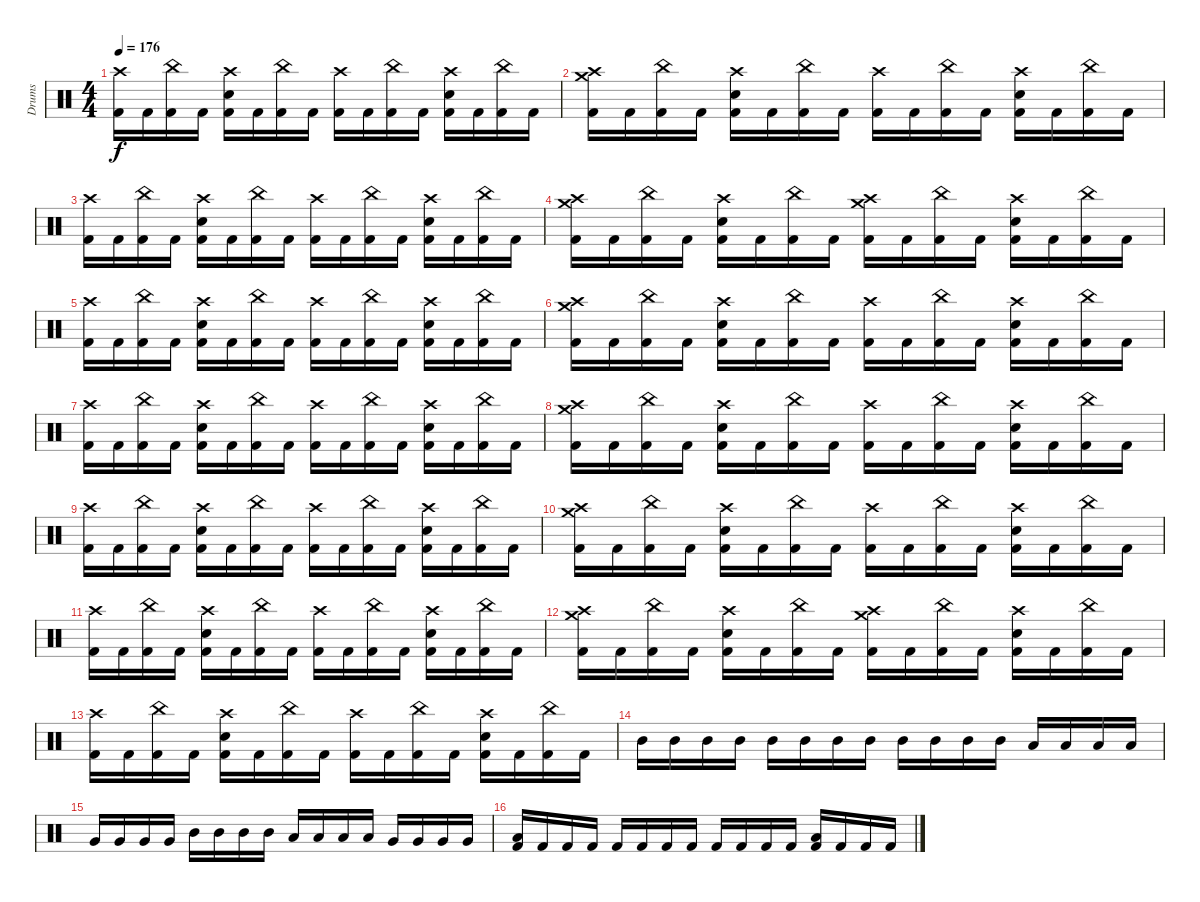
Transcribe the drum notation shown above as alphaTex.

\track ("Drums" "Drums") {instrument percussion}
\staff {score}
\articulation defaults
\ts (4 4)
\tempo 176
\clef neutral
\ks c
("Crash high (hit)" "Kick (hit) 2").16{dy f} "Kick (hit) 2".16 ("China (hit)" "Kick (hit) 2").16 "Kick (hit) 2".16 ("Crash high (hit)" "Snare (hit) 2" "Kick (hit) 2").16 "Kick (hit) 2".16 ("China (hit)" "Kick (hit) 2").16 "Kick (hit) 2".16 ("Crash high (hit)" "Kick (hit) 2").16 "Kick (hit) 2".16 ("China (hit)" "Kick (hit) 2").16 "Kick (hit) 2".16 ("Crash high (hit)" "Snare (hit) 2" "Kick (hit) 2").16 "Kick (hit) 2".16 ("China (hit)" "Kick (hit) 2").16 "Kick (hit) 2".16 |
("Crash medium (hit)" "Crash high (hit)" "Kick (hit) 2").16 "Kick (hit) 2".16 ("China (hit)" "Kick (hit) 2").16 "Kick (hit) 2".16 ("Crash high (hit)" "Snare (hit) 2" "Kick (hit) 2").16 "Kick (hit) 2".16 ("China (hit)" "Kick (hit) 2").16 "Kick (hit) 2".16 ("Crash high (hit)" "Kick (hit) 2").16 "Kick (hit) 2".16 ("China (hit)" "Kick (hit) 2").16 "Kick (hit) 2".16 ("Crash high (hit)" "Snare (hit) 2" "Kick (hit) 2").16 "Kick (hit) 2".16 ("China (hit)" "Kick (hit) 2").16 "Kick (hit) 2".16 |
("Crash high (hit)" "Kick (hit) 2").16 "Kick (hit) 2".16 ("China (hit)" "Kick (hit) 2").16 "Kick (hit) 2".16 ("Crash high (hit)" "Snare (hit) 2" "Kick (hit) 2").16 "Kick (hit) 2".16 ("China (hit)" "Kick (hit) 2").16 "Kick (hit) 2".16 ("Crash high (hit)" "Kick (hit) 2").16 "Kick (hit) 2".16 ("China (hit)" "Kick (hit) 2").16 "Kick (hit) 2".16 ("Crash high (hit)" "Snare (hit) 2" "Kick (hit) 2").16 "Kick (hit) 2".16 ("China (hit)" "Kick (hit) 2").16 "Kick (hit) 2".16 |
("Crash medium (hit)" "Crash high (hit)" "Kick (hit) 2").16 "Kick (hit) 2".16 ("China (hit)" "Kick (hit) 2").16 "Kick (hit) 2".16 ("Crash high (hit)" "Snare (hit) 2" "Kick (hit) 2").16 "Kick (hit) 2".16 ("China (hit)" "Kick (hit) 2").16 "Kick (hit) 2".16 ("Crash high (hit)" "Crash medium (hit)" "Kick (hit) 2").16 "Kick (hit) 2".16 ("China (hit)" "Kick (hit) 2").16 "Kick (hit) 2".16 ("Crash high (hit)" "Snare (hit) 2" "Kick (hit) 2").16 "Kick (hit) 2".16 ("China (hit)" "Kick (hit) 2").16 "Kick (hit) 2".16 |
("Crash high (hit)" "Kick (hit) 2").16 "Kick (hit) 2".16 ("China (hit)" "Kick (hit) 2").16 "Kick (hit) 2".16 ("Crash high (hit)" "Snare (hit) 2" "Kick (hit) 2").16 "Kick (hit) 2".16 ("China (hit)" "Kick (hit) 2").16 "Kick (hit) 2".16 ("Crash high (hit)" "Kick (hit) 2").16 "Kick (hit) 2".16 ("China (hit)" "Kick (hit) 2").16 "Kick (hit) 2".16 ("Crash high (hit)" "Snare (hit) 2" "Kick (hit) 2").16 "Kick (hit) 2".16 ("China (hit)" "Kick (hit) 2").16 "Kick (hit) 2".16 |
("Crash medium (hit)" "Crash high (hit)" "Kick (hit) 2").16 "Kick (hit) 2".16 ("China (hit)" "Kick (hit) 2").16 "Kick (hit) 2".16 ("Crash high (hit)" "Snare (hit) 2" "Kick (hit) 2").16 "Kick (hit) 2".16 ("China (hit)" "Kick (hit) 2").16 "Kick (hit) 2".16 ("Crash high (hit)" "Kick (hit) 2").16 "Kick (hit) 2".16 ("China (hit)" "Kick (hit) 2").16 "Kick (hit) 2".16 ("Crash high (hit)" "Snare (hit) 2" "Kick (hit) 2").16 "Kick (hit) 2".16 ("China (hit)" "Kick (hit) 2").16 "Kick (hit) 2".16 |
("Crash high (hit)" "Kick (hit) 2").16 "Kick (hit) 2".16 ("China (hit)" "Kick (hit) 2").16 "Kick (hit) 2".16 ("Crash high (hit)" "Snare (hit) 2" "Kick (hit) 2").16 "Kick (hit) 2".16 ("China (hit)" "Kick (hit) 2").16 "Kick (hit) 2".16 ("Crash high (hit)" "Kick (hit) 2").16 "Kick (hit) 2".16 ("China (hit)" "Kick (hit) 2").16 "Kick (hit) 2".16 ("Crash high (hit)" "Snare (hit) 2" "Kick (hit) 2").16 "Kick (hit) 2".16 ("China (hit)" "Kick (hit) 2").16 "Kick (hit) 2".16 |
("Crash medium (hit)" "Crash high (hit)" "Kick (hit) 2").16 "Kick (hit) 2".16 ("China (hit)" "Kick (hit) 2").16 "Kick (hit) 2".16 ("Crash high (hit)" "Snare (hit) 2" "Kick (hit) 2").16 "Kick (hit) 2".16 ("China (hit)" "Kick (hit) 2").16 "Kick (hit) 2".16 ("Crash high (hit)" "Kick (hit) 2").16 "Kick (hit) 2".16 ("China (hit)" "Kick (hit) 2").16 "Kick (hit) 2".16 ("Crash high (hit)" "Snare (hit) 2" "Kick (hit) 2").16 "Kick (hit) 2".16 ("China (hit)" "Kick (hit) 2").16 "Kick (hit) 2".16 |
("Crash high (hit)" "Kick (hit) 2").16 "Kick (hit) 2".16 ("China (hit)" "Kick (hit) 2").16 "Kick (hit) 2".16 ("Crash high (hit)" "Snare (hit) 2" "Kick (hit) 2").16 "Kick (hit) 2".16 ("China (hit)" "Kick (hit) 2").16 "Kick (hit) 2".16 ("Crash high (hit)" "Kick (hit) 2").16 "Kick (hit) 2".16 ("China (hit)" "Kick (hit) 2").16 "Kick (hit) 2".16 ("Crash high (hit)" "Snare (hit) 2" "Kick (hit) 2").16 "Kick (hit) 2".16 ("China (hit)" "Kick (hit) 2").16 "Kick (hit) 2".16 |
("Crash medium (hit)" "Crash high (hit)" "Kick (hit) 2").16 "Kick (hit) 2".16 ("China (hit)" "Kick (hit) 2").16 "Kick (hit) 2".16 ("Crash high (hit)" "Snare (hit) 2" "Kick (hit) 2").16 "Kick (hit) 2".16 ("China (hit)" "Kick (hit) 2").16 "Kick (hit) 2".16 ("Crash high (hit)" "Kick (hit) 2").16 "Kick (hit) 2".16 ("China (hit)" "Kick (hit) 2").16 "Kick (hit) 2".16 ("Crash high (hit)" "Snare (hit) 2" "Kick (hit) 2").16 "Kick (hit) 2".16 ("China (hit)" "Kick (hit) 2").16 "Kick (hit) 2".16 |
("Crash high (hit)" "Kick (hit) 2").16 "Kick (hit) 2".16 ("China (hit)" "Kick (hit) 2").16 "Kick (hit) 2".16 ("Crash high (hit)" "Snare (hit) 2" "Kick (hit) 2").16 "Kick (hit) 2".16 ("China (hit)" "Kick (hit) 2").16 "Kick (hit) 2".16 ("Crash high (hit)" "Kick (hit) 2").16 "Kick (hit) 2".16 ("China (hit)" "Kick (hit) 2").16 "Kick (hit) 2".16 ("Crash high (hit)" "Snare (hit) 2" "Kick (hit) 2").16 "Kick (hit) 2".16 ("China (hit)" "Kick (hit) 2").16 "Kick (hit) 2".16 |
("Crash medium (hit)" "Crash high (hit)" "Kick (hit) 2").16 "Kick (hit) 2".16 ("China (hit)" "Kick (hit) 2").16 "Kick (hit) 2".16 ("Crash high (hit)" "Snare (hit) 2" "Kick (hit) 2").16 "Kick (hit) 2".16 ("China (hit)" "Kick (hit) 2").16 "Kick (hit) 2".16 ("Crash high (hit)" "Crash medium (hit)" "Kick (hit) 2").16 "Kick (hit) 2".16 ("China (hit)" "Kick (hit) 2").16 "Kick (hit) 2".16 ("Crash high (hit)" "Snare (hit) 2" "Kick (hit) 2").16 "Kick (hit) 2".16 ("China (hit)" "Kick (hit) 2").16 "Kick (hit) 2".16 |
("Crash high (hit)" "Kick (hit) 2").16 "Kick (hit) 2".16 ("China (hit)" "Kick (hit) 2").16 "Kick (hit) 2".16 ("Crash high (hit)" "Snare (hit) 2" "Kick (hit) 2").16 "Kick (hit) 2".16 ("China (hit)" "Kick (hit) 2").16 "Kick (hit) 2".16 ("Crash high (hit)" "Kick (hit) 2").16 "Kick (hit) 2".16 ("China (hit)" "Kick (hit) 2").16 "Kick (hit) 2".16 ("Crash high (hit)" "Snare (hit) 2" "Kick (hit) 2").16 "Kick (hit) 2".16 ("China (hit)" "Kick (hit) 2").16 "Kick (hit) 2".16 |
"Mid Tom (hit)".16 "Mid Tom (hit)".16 "Mid Tom (hit)".16 "Mid Tom (hit)".16 "Mid Tom (hit)".16 "Mid Tom (hit)".16 "Mid Tom (hit)".16 "Mid Tom (hit)".16 "Mid Tom (hit)".16 "Mid Tom (hit)".16 "Mid Tom (hit)".16 "Mid Tom (hit)".16 "Low Tom (hit)".16 "Low Tom (hit)".16 "Low Tom (hit)".16 "Low Tom (hit)".16 |
"Very Low Tom (hit)".16 "Very Low Tom (hit)".16 "Very Low Tom (hit)".16 "Very Low Tom (hit)".16 "Mid Tom (hit)".16 "Mid Tom (hit)".16 "Mid Tom (hit)".16 "Mid Tom (hit)".16 "Low Tom (hit)".16 "Low Tom (hit)".16 "Low Tom (hit)".16 "Low Tom (hit)".16 "Very Low Tom (hit)".16 "Very Low Tom (hit)".16 "Very Low Tom (hit)".16 "Very Low Tom (hit)".16 |
("Low Tom (hit)" "Kick (hit) 2").16 "Kick (hit) 2".16 "Kick (hit) 2".16 "Kick (hit) 2".16 "Kick (hit) 2".16 "Kick (hit) 2".16 "Kick (hit) 2".16 "Kick (hit) 2".16 "Kick (hit) 2".16 "Kick (hit) 2".16 "Kick (hit) 2".16 "Kick (hit) 2".16 ("Low Tom (hit)" "Kick (hit) 2").16 "Kick (hit) 2".16 "Kick (hit) 2".16 "Kick (hit) 2".16
